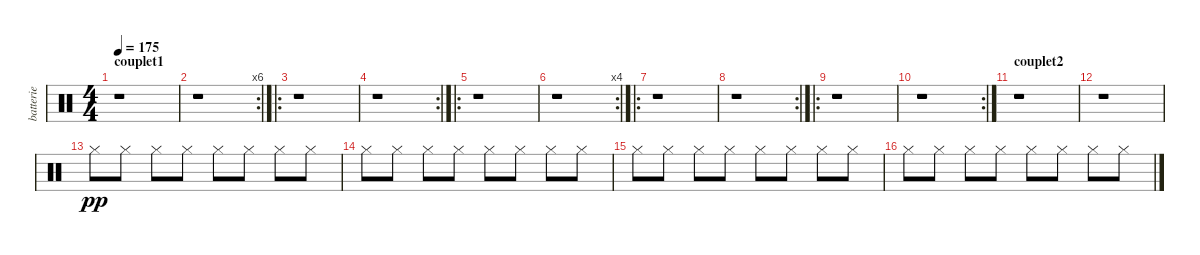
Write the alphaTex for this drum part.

\track ("batterie" "batterie") {instrument percussion}
\staff {score}
\articulation defaults
\ts (4 4)
\section ("" "couplet1")
\tempo 175
\clef neutral
\ks c
r.1{dy pp} |
\rc 6
r.1 |
\ro
r.1 |
\rc 2
r.1 |
\ro
r.1 |
\rc 4
r.1 |
\ro
r.1 |
\rc 2
r.1 |
\ro
r.1 |
\rc 2
r.1 |
\section ("" "couplet2")
r.1 |
r.1 |
"Hi-Hat (closed)".8 "Hi-Hat (closed)".8 "Hi-Hat (closed)".8 "Hi-Hat (closed)".8 "Hi-Hat (closed)".8 "Hi-Hat (closed)".8 "Hi-Hat (closed)".8 "Hi-Hat (closed)".8 |
"Hi-Hat (closed)".8 "Hi-Hat (closed)".8 "Hi-Hat (closed)".8 "Hi-Hat (closed)".8 "Hi-Hat (closed)".8 "Hi-Hat (closed)".8 "Hi-Hat (closed)".8 "Hi-Hat (closed)".8 |
"Hi-Hat (closed)".8 "Hi-Hat (closed)".8 "Hi-Hat (closed)".8 "Hi-Hat (closed)".8 "Hi-Hat (closed)".8 "Hi-Hat (closed)".8 "Hi-Hat (closed)".8 "Hi-Hat (closed)".8 |
"Hi-Hat (closed)".8 "Hi-Hat (closed)".8 "Hi-Hat (closed)".8 "Hi-Hat (closed)".8 "Hi-Hat (closed)".8 "Hi-Hat (closed)".8 "Hi-Hat (closed)".8 "Hi-Hat (closed)".8
